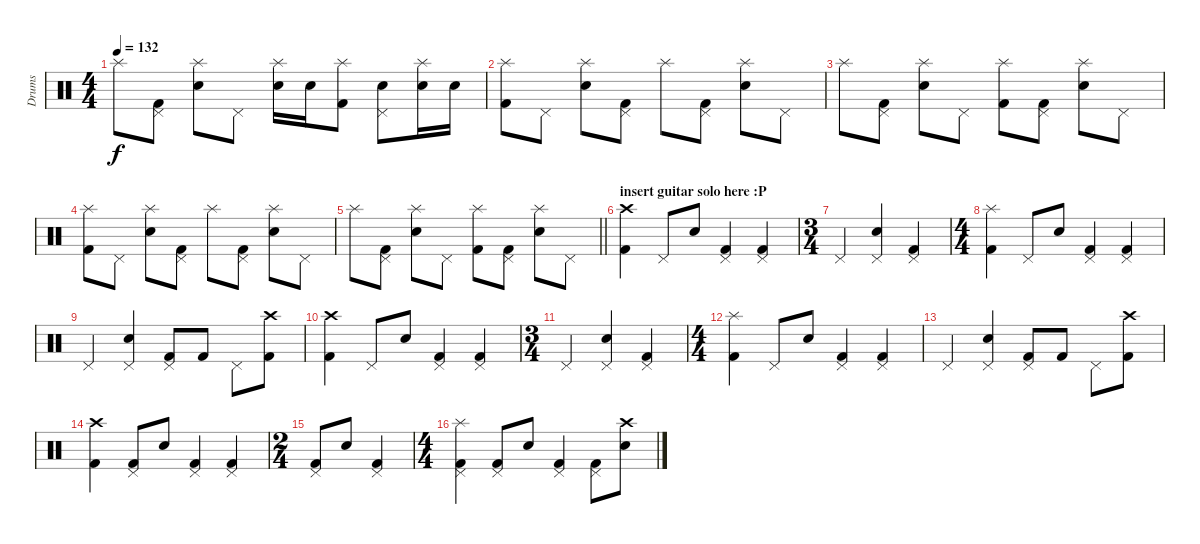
\track ("Drums" "Drums") {instrument percussion}
\staff {score}
\articulation defaults
\ts (4 4)
\tempo 132
\clef neutral
\ks c "Splash (hit)".8{dy f}
("Pedal Hi-Hat (hit)" "Kick (hit) 2").8 ("Splash (hit)" "Snare (hit) 2").8 "Pedal Hi-Hat (hit)".8 ("Splash (hit)" "Snare (hit) 2").16 "Snare (hit) 2".16 ("Splash (hit)" "Kick (hit) 2").8 ("Pedal Hi-Hat (hit)" "Snare (hit) 2").8 ("Splash (hit)" "Snare (hit) 2").16 "Snare (hit) 2".16 |
("Splash (hit)" "Kick (hit) 2").8 "Pedal Hi-Hat (hit)".8 ("Splash (hit)" "Snare (hit) 2").8 ("Pedal Hi-Hat (hit)" "Kick (hit) 2").8 "Splash (hit)".8 ("Pedal Hi-Hat (hit)" "Kick (hit) 2").8 ("Splash (hit)" "Snare (hit) 2").8 "Pedal Hi-Hat (hit)".8 |
"Splash (hit)".8 ("Pedal Hi-Hat (hit)" "Kick (hit) 2").8 ("Splash (hit)" "Snare (hit) 2").8 "Pedal Hi-Hat (hit)".8 ("Splash (hit)" "Kick (hit) 2").8 ("Pedal Hi-Hat (hit)" "Kick (hit) 2").8 ("Splash (hit)" "Snare (hit) 2").8 "Pedal Hi-Hat (hit)".8 |
("Splash (hit)" "Kick (hit) 2").8 "Pedal Hi-Hat (hit)".8 ("Splash (hit)" "Snare (hit) 2").8 ("Pedal Hi-Hat (hit)" "Kick (hit) 2").8 "Splash (hit)".8 ("Pedal Hi-Hat (hit)" "Kick (hit) 2").8 ("Splash (hit)" "Snare (hit) 2").8 "Pedal Hi-Hat (hit)".8 |
\barLineRight lightlight "Splash (hit)".8
("Pedal Hi-Hat (hit)" "Kick (hit) 2").8 ("Splash (hit)" "Snare (hit) 2").8 "Pedal Hi-Hat (hit)".8 ("Splash (hit)" "Kick (hit) 2").8 ("Pedal Hi-Hat (hit)" "Kick (hit) 2").8 ("Splash (hit)" "Snare (hit) 2").8 "Pedal Hi-Hat (hit)".8 |
\section ("" "insert guitar solo here :P")
("Crash high (hit)" "Kick (hit) 2").4 "Pedal Hi-Hat (hit)".8 "Snare (hit) 2".8 ("Pedal Hi-Hat (hit)" "Kick (hit) 2").4 ("Pedal Hi-Hat (hit)" "Kick (hit) 2").4 |
\ts (3 4)
"Pedal Hi-Hat (hit)".4 ("Pedal Hi-Hat (hit)" "Snare (hit) 2").4 ("Pedal Hi-Hat (hit)" "Kick (hit) 2").4 |
\ts (4 4)
("Splash (hit)" "Kick (hit) 2").4 "Pedal Hi-Hat (hit)".8 "Snare (hit) 2".8 ("Pedal Hi-Hat (hit)" "Kick (hit) 2").4 ("Pedal Hi-Hat (hit)" "Kick (hit) 2").4 |
"Pedal Hi-Hat (hit)".4 ("Pedal Hi-Hat (hit)" "Snare (hit) 2").4 ("Pedal Hi-Hat (hit)" "Kick (hit) 2").8 "Kick (hit) 2".8 "Pedal Hi-Hat (hit)".8 ("Crash high (hit)" "Kick (hit) 2").8 |
("Crash high (hit)" "Kick (hit) 2").4 "Pedal Hi-Hat (hit)".8 "Snare (hit) 2".8 ("Pedal Hi-Hat (hit)" "Kick (hit) 2").4 ("Pedal Hi-Hat (hit)" "Kick (hit) 2").4 |
\ts (3 4)
"Pedal Hi-Hat (hit)".4 ("Pedal Hi-Hat (hit)" "Snare (hit) 2").4 ("Pedal Hi-Hat (hit)" "Kick (hit) 2").4 |
\ts (4 4)
("Splash (hit)" "Kick (hit) 2").4 "Pedal Hi-Hat (hit)".8 "Snare (hit) 2".8 ("Pedal Hi-Hat (hit)" "Kick (hit) 2").4 ("Pedal Hi-Hat (hit)" "Kick (hit) 2").4 |
"Pedal Hi-Hat (hit)".4 ("Pedal Hi-Hat (hit)" "Snare (hit) 2").4 ("Pedal Hi-Hat (hit)" "Kick (hit) 2").8 "Kick (hit) 2".8 "Pedal Hi-Hat (hit)".8 ("Crash high (hit)" "Kick (hit) 2").8 |
("Crash high (hit)" "Kick (hit) 2").4 ("Pedal Hi-Hat (hit)" "Kick (hit) 2").8 "Snare (hit) 2".8 ("Pedal Hi-Hat (hit)" "Kick (hit) 2").4 ("Pedal Hi-Hat (hit)" "Kick (hit) 2").4 |
\ts (2 4)
("Pedal Hi-Hat (hit)" "Kick (hit) 2").8 "Snare (hit) 2".8 ("Pedal Hi-Hat (hit)" "Kick (hit) 2").4 |
\ts (4 4)
("Pedal Hi-Hat (hit)" "Splash (hit)" "Kick (hit) 2").4 ("Pedal Hi-Hat (hit)" "Kick (hit) 2").8 "Snare (hit) 2".8 ("Pedal Hi-Hat (hit)" "Kick (hit) 2").4 ("Pedal Hi-Hat (hit)" "Kick (hit) 2").8 ("Crash high (hit)" "Snare (hit) 2").8
